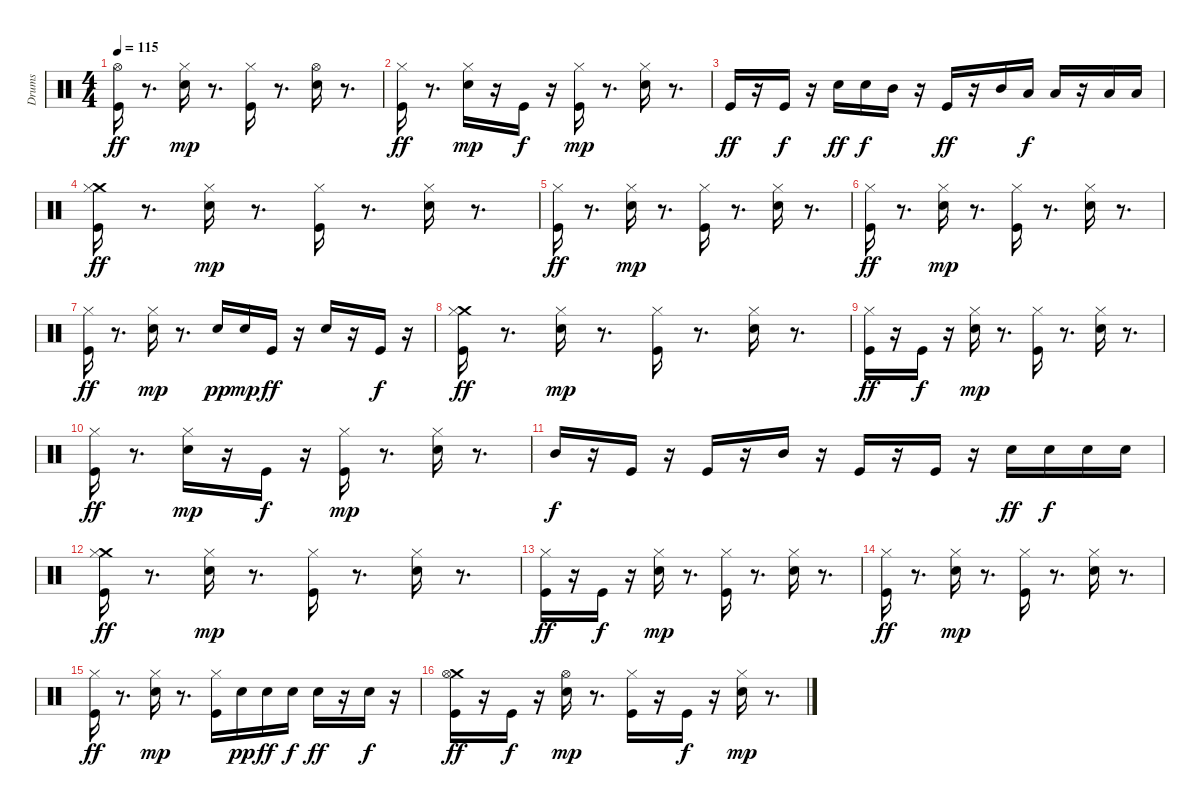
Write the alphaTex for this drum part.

\track ("Drums" "Drums") {instrument percussion}
\staff {score}
\articulation defaults
\ts (4 4)
\tempo 115
\clef neutral
\ks c
("Kick (hit)" "Hi-Hat (open)").16{dy ff} r.8{d} ("Electric Snare (hit)" "Hi-Hat (closed)").16{dy mp} r.8{d} ("Kick (hit)" "Hi-Hat (closed)").16 r.8{d} ("Electric Snare (hit)" "Hi-Hat (open)").16 r.8{d} |
("Kick (hit)" "Hi-Hat (closed)").16{dy ff} r.8{d} ("Electric Snare (hit)" "Hi-Hat (closed)").16{dy mp} r.16 "Kick (hit)".16{dy f} r.16 ("Kick (hit)" "Hi-Hat (closed)").16{dy mp} r.8{d} ("Electric Snare (hit)" "Hi-Hat (closed)").16 r.8{d} |
"Kick (hit)".16{dy ff} r.16 "Kick (hit)".16{dy f} r.16 "Electric Snare (hit)".16{dy ff} "Electric Snare (hit)".16{dy f} "Mid Tom (hit)".16 r.16 "Kick (hit)".16{dy ff} r.16 "Mid Tom (hit)".16 "Low Tom (hit)".16{dy f} "Low Tom (hit)".16 r.16 "Low Tom (hit)".16 "Low Tom (hit)".16 |
("Crash medium (hit)" "Kick (hit)" "Hi-Hat (closed)").16{dy ff} r.8{d} ("Electric Snare (hit)" "Hi-Hat (closed)").16{dy mp} r.8{d} ("Kick (hit)" "Hi-Hat (closed)").16 r.8{d} ("Electric Snare (hit)" "Hi-Hat (closed)").16 r.8{d} |
("Kick (hit)" "Hi-Hat (closed)").16{dy ff} r.8{d} ("Electric Snare (hit)" "Hi-Hat (closed)").16{dy mp} r.8{d} ("Kick (hit)" "Hi-Hat (closed)").16 r.8{d} ("Electric Snare (hit)" "Hi-Hat (closed)").16 r.8{d} |
("Kick (hit)" "Hi-Hat (closed)").16{dy ff} r.8{d} ("Electric Snare (hit)" "Hi-Hat (closed)").16{dy mp} r.8{d} ("Kick (hit)" "Hi-Hat (closed)").16 r.8{d} ("Electric Snare (hit)" "Hi-Hat (closed)").16 r.8{d} |
("Kick (hit)" "Hi-Hat (closed)").16{dy ff} r.8{d} ("Electric Snare (hit)" "Hi-Hat (closed)").16{dy mp} r.8{d} "Electric Snare (hit)".16{dy pp} "Electric Snare (hit)".16{dy mp} "Kick (hit)".16{dy ff} r.16 "Electric Snare (hit)".16 r.16 "Kick (hit)".16{dy f} r.16 |
("Crash medium (hit)" "Kick (hit)" "Hi-Hat (closed)").16{dy ff} r.8{d} ("Electric Snare (hit)" "Hi-Hat (closed)").16{dy mp} r.8{d} ("Kick (hit)" "Hi-Hat (closed)").16 r.8{d} ("Electric Snare (hit)" "Hi-Hat (closed)").16 r.8{d} |
("Kick (hit)" "Hi-Hat (closed)").16{dy ff} r.16 "Kick (hit)".16{dy f} r.16 ("Electric Snare (hit)" "Hi-Hat (closed)").16{dy mp} r.8{d} ("Kick (hit)" "Hi-Hat (closed)").16 r.8{d} ("Electric Snare (hit)" "Hi-Hat (closed)").16 r.8{d} |
("Kick (hit)" "Hi-Hat (closed)").16{dy ff} r.8{d} ("Electric Snare (hit)" "Hi-Hat (closed)").16{dy mp} r.16 "Kick (hit)".16{dy f} r.16 ("Kick (hit)" "Hi-Hat (closed)").16{dy mp} r.8{d} ("Electric Snare (hit)" "Hi-Hat (closed)").16 r.8{d} |
"Mid Tom (hit)".16{dy f} r.16 "Kick (hit)".16 r.16 "Kick (hit)".16 r.16 "Mid Tom (hit)".16 r.16 "Kick (hit)".16 r.16 "Kick (hit)".16 r.16 "Electric Snare (hit)".16{dy ff} "Electric Snare (hit)".16{dy f} "Electric Snare (hit)".16 "Electric Snare (hit)".16 |
("Crash medium (hit)" "Kick (hit)" "Hi-Hat (closed)").16{dy ff} r.8{d} ("Electric Snare (hit)" "Hi-Hat (closed)").16{dy mp} r.8{d} ("Kick (hit)" "Hi-Hat (closed)").16 r.8{d} ("Electric Snare (hit)" "Hi-Hat (closed)").16 r.8{d} |
("Kick (hit)" "Hi-Hat (closed)").16{dy ff} r.16 "Kick (hit)".16{dy f} r.16 ("Electric Snare (hit)" "Hi-Hat (closed)").16{dy mp} r.8{d} ("Kick (hit)" "Hi-Hat (closed)").16 r.8{d} ("Electric Snare (hit)" "Hi-Hat (closed)").16 r.8{d} |
("Kick (hit)" "Hi-Hat (closed)").16{dy ff} r.8{d} ("Electric Snare (hit)" "Hi-Hat (closed)").16{dy mp} r.8{d} ("Kick (hit)" "Hi-Hat (closed)").16 r.8{d} ("Electric Snare (hit)" "Hi-Hat (closed)").16 r.8{d} |
("Kick (hit)" "Hi-Hat (closed)").16{dy ff} r.8{d} ("Electric Snare (hit)" "Hi-Hat (closed)").16{dy mp} r.8{d} ("Kick (hit)" "Hi-Hat (closed)").16 "Electric Snare (hit)".16{dy pp} "Electric Snare (hit)".16{dy ff} "Electric Snare (hit)".16{dy f} "Electric Snare (hit)".16{dy ff} r.16 "Electric Snare (hit)".16{dy f} r.16 |
("Crash medium (hit)" "Kick (hit)" "Hi-Hat (open)").16{dy ff} r.16 "Kick (hit)".16{dy f} r.16 ("Electric Snare (hit)" "Hi-Hat (open)").16{dy mp} r.8{d} ("Kick (hit)" "Hi-Hat (closed)").16 r.16 "Kick (hit)".16{dy f} r.16 ("Electric Snare (hit)" "Hi-Hat (closed)").16{dy mp} r.8{d}
